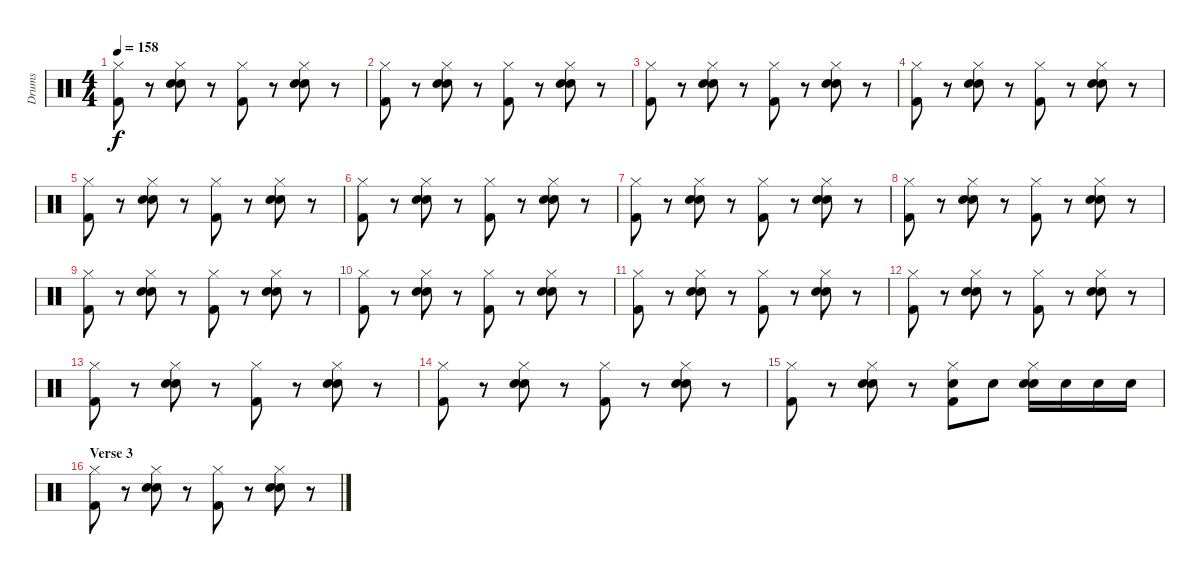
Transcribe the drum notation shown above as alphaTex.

\track ("Drums" "Drums") {instrument percussion}
\staff {score}
\articulation defaults
\ts (4 4)
\tempo 158
\clef neutral
\ks c
("Hi-Hat (closed)" "Kick (hit) 2").8{dy f} r.8 ("Hi-Hat (closed)" "Electric Snare (hit)" "Snare (hit) 2").8 r.8 ("Hi-Hat (closed)" "Kick (hit) 2").8 r.8 ("Hi-Hat (closed)" "Electric Snare (hit)" "Snare (hit) 2").8 r.8 |
("Hi-Hat (closed)" "Kick (hit) 2").8 r.8 ("Hi-Hat (closed)" "Electric Snare (hit)" "Snare (hit) 2").8 r.8 ("Hi-Hat (closed)" "Kick (hit) 2").8 r.8 ("Hi-Hat (closed)" "Electric Snare (hit)" "Snare (hit) 2").8 r.8 |
("Hi-Hat (closed)" "Kick (hit) 2").8 r.8 ("Hi-Hat (closed)" "Electric Snare (hit)" "Snare (hit) 2").8 r.8 ("Hi-Hat (closed)" "Kick (hit) 2").8 r.8 ("Hi-Hat (closed)" "Electric Snare (hit)" "Snare (hit) 2").8 r.8 |
("Hi-Hat (closed)" "Kick (hit) 2").8 r.8 ("Hi-Hat (closed)" "Electric Snare (hit)" "Snare (hit) 2").8 r.8 ("Hi-Hat (closed)" "Kick (hit) 2").8 r.8 ("Hi-Hat (closed)" "Electric Snare (hit)" "Snare (hit) 2").8 r.8 |
("Hi-Hat (closed)" "Kick (hit) 2").8 r.8 ("Hi-Hat (closed)" "Electric Snare (hit)" "Snare (hit) 2").8 r.8 ("Hi-Hat (closed)" "Kick (hit) 2").8 r.8 ("Hi-Hat (closed)" "Electric Snare (hit)" "Snare (hit) 2").8 r.8 |
("Hi-Hat (closed)" "Kick (hit) 2").8 r.8 ("Hi-Hat (closed)" "Electric Snare (hit)" "Snare (hit) 2").8 r.8 ("Hi-Hat (closed)" "Kick (hit) 2").8 r.8 ("Hi-Hat (closed)" "Electric Snare (hit)" "Snare (hit) 2").8 r.8 |
("Hi-Hat (closed)" "Kick (hit) 2").8 r.8 ("Hi-Hat (closed)" "Electric Snare (hit)" "Snare (hit) 2").8 r.8 ("Hi-Hat (closed)" "Kick (hit) 2").8 r.8 ("Hi-Hat (closed)" "Electric Snare (hit)" "Snare (hit) 2").8 r.8 |
("Hi-Hat (closed)" "Kick (hit) 2").8 r.8 ("Hi-Hat (closed)" "Electric Snare (hit)" "Snare (hit) 2").8 r.8 ("Hi-Hat (closed)" "Kick (hit) 2").8 r.8 ("Hi-Hat (closed)" "Electric Snare (hit)" "Snare (hit) 2").8 r.8 |
("Hi-Hat (closed)" "Kick (hit) 2").8 r.8 ("Hi-Hat (closed)" "Electric Snare (hit)" "Snare (hit) 2").8 r.8 ("Hi-Hat (closed)" "Kick (hit) 2").8 r.8 ("Hi-Hat (closed)" "Electric Snare (hit)" "Snare (hit) 2").8 r.8 |
("Hi-Hat (closed)" "Kick (hit) 2").8 r.8 ("Hi-Hat (closed)" "Electric Snare (hit)" "Snare (hit) 2").8 r.8 ("Hi-Hat (closed)" "Kick (hit) 2").8 r.8 ("Hi-Hat (closed)" "Electric Snare (hit)" "Snare (hit) 2").8 r.8 |
("Hi-Hat (closed)" "Kick (hit) 2").8 r.8 ("Hi-Hat (closed)" "Electric Snare (hit)" "Snare (hit) 2").8 r.8 ("Hi-Hat (closed)" "Kick (hit) 2").8 r.8 ("Hi-Hat (closed)" "Electric Snare (hit)" "Snare (hit) 2").8 r.8 |
("Hi-Hat (closed)" "Kick (hit) 2").8 r.8 ("Hi-Hat (closed)" "Electric Snare (hit)" "Snare (hit) 2").8 r.8 ("Hi-Hat (closed)" "Kick (hit) 2").8 r.8 ("Hi-Hat (closed)" "Electric Snare (hit)" "Snare (hit) 2").8 r.8 |
("Hi-Hat (closed)" "Kick (hit) 2").8 r.8 ("Hi-Hat (closed)" "Electric Snare (hit)" "Snare (hit) 2").8 r.8 ("Hi-Hat (closed)" "Kick (hit) 2").8 r.8 ("Hi-Hat (closed)" "Electric Snare (hit)" "Snare (hit) 2").8 r.8 |
("Hi-Hat (closed)" "Kick (hit) 2").8 r.8 ("Hi-Hat (closed)" "Electric Snare (hit)" "Snare (hit) 2").8 r.8 ("Hi-Hat (closed)" "Kick (hit) 2").8 r.8 ("Hi-Hat (closed)" "Electric Snare (hit)" "Snare (hit) 2").8 r.8 |
("Hi-Hat (closed)" "Kick (hit) 2").8 r.8 ("Hi-Hat (closed)" "Electric Snare (hit)" "Snare (hit) 2").8 r.8 ("Hi-Hat (closed)" "Snare (hit) 2" "Kick (hit) 2").8 "Snare (hit) 2".8 ("Hi-Hat (closed)" "Electric Snare (hit)" "Snare (hit) 2").16 "Snare (hit) 2".16 "Snare (hit) 2".16 "Snare (hit) 2".16 |
\section ("" "Verse 3")
("Hi-Hat (closed)" "Kick (hit) 2").8 r.8 ("Hi-Hat (closed)" "Electric Snare (hit)" "Snare (hit) 2").8 r.8 ("Hi-Hat (closed)" "Kick (hit) 2").8 r.8 ("Hi-Hat (closed)" "Electric Snare (hit)" "Snare (hit) 2").8 r.8
